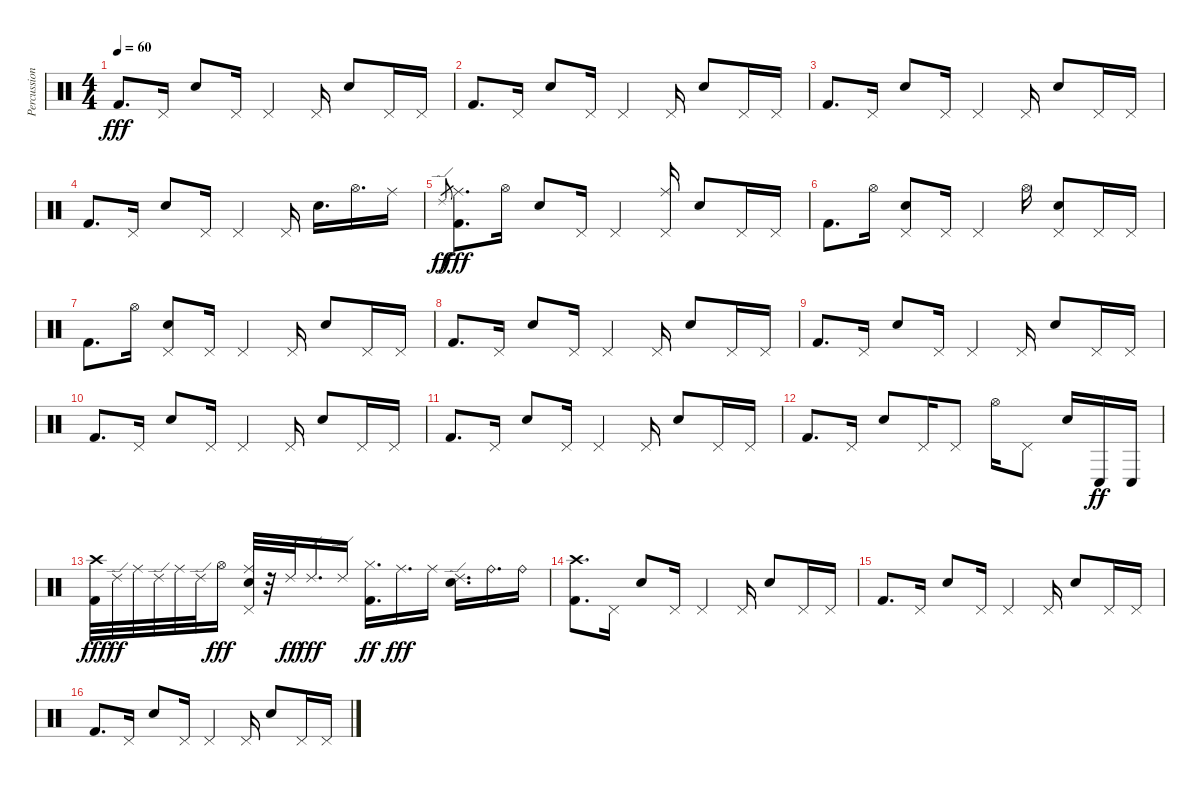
\track ("Percussion" "Percussion") {instrument percussion}
\staff {score}
\articulation defaults
\ts (4 4)
\tempo 60
\clef neutral
\ks c "Kick (hit) 2".8{d dy fff} "Pedal Hi-Hat (hit)".16 "Snare (hit) 2".8 "Pedal Hi-Hat (hit)".16 "Pedal Hi-Hat (hit)".4 "Pedal Hi-Hat (hit)".16 "Snare (hit) 2".8 "Pedal Hi-Hat (hit)".16 "Pedal Hi-Hat (hit)".16
|
"Kick (hit) 2".8{d} "Pedal Hi-Hat (hit)".16 "Snare (hit) 2".8 "Pedal Hi-Hat (hit)".16 "Pedal Hi-Hat (hit)".4 "Pedal Hi-Hat (hit)".16 "Snare (hit) 2".8 "Pedal Hi-Hat (hit)".16 "Pedal Hi-Hat (hit)".16 |
"Kick (hit) 2".8{d} "Pedal Hi-Hat (hit)".16 "Snare (hit) 2".8 "Pedal Hi-Hat (hit)".16 "Pedal Hi-Hat (hit)".4 "Pedal Hi-Hat (hit)".16 "Snare (hit) 2".8 "Pedal Hi-Hat (hit)".16 "Pedal Hi-Hat (hit)".16 |
"Kick (hit) 2".8{d} "Pedal Hi-Hat (hit)".16 "Snare (hit) 2".8 "Pedal Hi-Hat (hit)".16 "Pedal Hi-Hat (hit)".4 "Pedal Hi-Hat (hit)".16 "Snare (hit) 2".16{d} "Hi-Hat (open)".16{d} "Ride (middle)".16 |
"Ride (edge) 2".8{gr dy ff} ("Ride (middle)" "Kick (hit) 2").8{d dy fff} "Hi-Hat (open)".16 "Snare (hit) 2".8 "Pedal Hi-Hat (hit)".16 "Pedal Hi-Hat (hit)".4 ("Ride (middle)" "Pedal Hi-Hat (hit)").16 "Snare (hit) 2".8 "Pedal Hi-Hat (hit)".16 "Pedal Hi-Hat (hit)".16 |
"Kick (hit) 2".8{d} "Hi-Hat (open)".16 ("Pedal Hi-Hat (hit)" "Snare (hit) 2").8 "Pedal Hi-Hat (hit)".16 "Pedal Hi-Hat (hit)".4 "Hi-Hat (open)".16 ("Pedal Hi-Hat (hit)" "Snare (hit) 2").8 "Pedal Hi-Hat (hit)".16 "Pedal Hi-Hat (hit)".16 |
"Kick (hit) 2".8{d} "Hi-Hat (open)".16 ("Pedal Hi-Hat (hit)" "Snare (hit) 2").8 "Pedal Hi-Hat (hit)".16 "Pedal Hi-Hat (hit)".4 "Pedal Hi-Hat (hit)".16 "Snare (hit) 2".8 "Pedal Hi-Hat (hit)".16 "Pedal Hi-Hat (hit)".16 |
"Kick (hit) 2".8{d} "Pedal Hi-Hat (hit)".16 "Snare (hit) 2".8 "Pedal Hi-Hat (hit)".16 "Pedal Hi-Hat (hit)".4 "Pedal Hi-Hat (hit)".16 "Snare (hit) 2".8 "Pedal Hi-Hat (hit)".16 "Pedal Hi-Hat (hit)".16 |
"Kick (hit) 2".8{d} "Pedal Hi-Hat (hit)".16 "Snare (hit) 2".8 "Pedal Hi-Hat (hit)".16 "Pedal Hi-Hat (hit)".4 "Pedal Hi-Hat (hit)".16 "Snare (hit) 2".8 "Pedal Hi-Hat (hit)".16 "Pedal Hi-Hat (hit)".16 |
"Kick (hit) 2".8{d} "Pedal Hi-Hat (hit)".16 "Snare (hit) 2".8 "Pedal Hi-Hat (hit)".16 "Pedal Hi-Hat (hit)".4 "Pedal Hi-Hat (hit)".16 "Snare (hit) 2".8 "Pedal Hi-Hat (hit)".16 "Pedal Hi-Hat (hit)".16 |
"Kick (hit) 2".8{d} "Pedal Hi-Hat (hit)".16 "Snare (hit) 2".8 "Pedal Hi-Hat (hit)".16 "Pedal Hi-Hat (hit)".4 "Pedal Hi-Hat (hit)".16 "Snare (hit) 2".8 "Pedal Hi-Hat (hit)".16 "Pedal Hi-Hat (hit)".16 |
"Kick (hit) 2".8{d} "Pedal Hi-Hat (hit)".16 "Snare (hit) 2".8 "Pedal Hi-Hat (hit)".16 "Pedal Hi-Hat (hit)".8 "Hi-Hat (open)".16 "Pedal Hi-Hat (hit)".8 "Snare (hit) 2".16 "Conga low (hit)".16{dy ff} "Conga low (hit)".16 |
("Crash high (hit)" "Kick (hit) 2").32{dy fff} "Ride (edge) 2".32{dy ff} "Ride (middle)".32 "Ride (edge) 2".32 "Ride (middle)".32 "Ride (edge) 2".32 "Hi-Hat (open)".16{dy fff} ("Ride (middle)" "Pedal Hi-Hat (hit)" "Snare (hit) 2").32 r.32 "Ride (edge) 2".32{dy ff} "Ride (edge) 2".16{d dy fff} "Ride (edge) 2".16 ("Hi-Hat (closed)" "Kick (hit) 2").16{d dy ff} "Ride (middle)".16{d dy fff} "Ride (middle)".16 ("Ride (edge) 2" "Snare (hit) 2").16{d} "Ride (bell)".16{d} "Ride (bell)".16 |
("Crash high (hit)" "Kick (hit) 2").8{d} "Pedal Hi-Hat (hit)".16 "Snare (hit) 2".8 "Pedal Hi-Hat (hit)".16 "Pedal Hi-Hat (hit)".4 "Pedal Hi-Hat (hit)".16 "Snare (hit) 2".8 "Pedal Hi-Hat (hit)".16 "Pedal Hi-Hat (hit)".16 |
"Kick (hit) 2".8{d} "Pedal Hi-Hat (hit)".16 "Snare (hit) 2".8 "Pedal Hi-Hat (hit)".16 "Pedal Hi-Hat (hit)".4 "Pedal Hi-Hat (hit)".16 "Snare (hit) 2".8 "Pedal Hi-Hat (hit)".16 "Pedal Hi-Hat (hit)".16 |
"Kick (hit) 2".8{d} "Pedal Hi-Hat (hit)".16 "Snare (hit) 2".8 "Pedal Hi-Hat (hit)".16 "Pedal Hi-Hat (hit)".4 "Pedal Hi-Hat (hit)".16 "Snare (hit) 2".8 "Pedal Hi-Hat (hit)".16 "Pedal Hi-Hat (hit)".16
